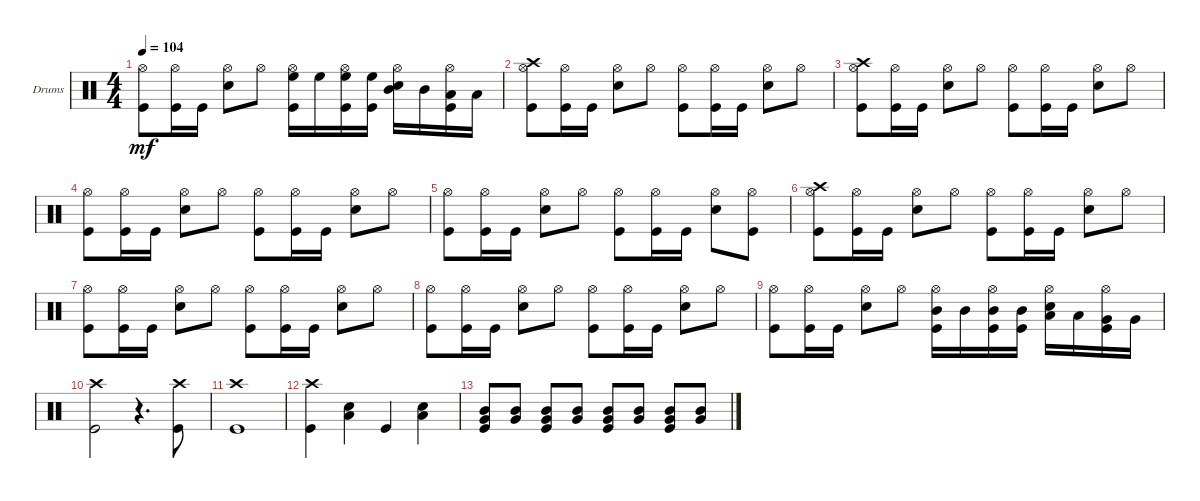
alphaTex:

\defaultSystemsLayout 4
\bracketExtendMode groupsimilarinstruments
\firstSystemTrackNameOrientation horizontal
\otherSystemsTrackNameOrientation horizontal
\track ("Drum" "Drums") {instrument percussion}
\staff {score}
\articulation defaults
\ts (4 4)
\tempo 104
\clef neutral
\ks c
("Hi-Hat (open)" "Kick (hit)").8{dy mf} ("Kick (hit)" "Hi-Hat (open)").16 "Kick (hit)".16 ("Hi-Hat (open)" "Snare (hit) 2").8 "Hi-Hat (open)".8 ("High Floor Tom (hit)" "Kick (hit)" "Hi-Hat (open)").16 "High Floor Tom (hit)".16 ("Kick (hit)" "High Floor Tom (hit)" "Hi-Hat (open)").16 ("Kick (hit)" "High Floor Tom (hit)").16 ("Mid Tom (hit)" "Snare (hit) 2" "Hi-Hat (open)").16 "Mid Tom (hit)".16 ("Kick (hit)" "Low Tom (hit)" "Hi-Hat (open)").16 "Low Tom (hit)".16 |
("Kick (hit)" "Hi-Hat (open)" "Crash high (hit)").8 ("Hi-Hat (open)" "Kick (hit)").16 "Kick (hit)".16 ("Hi-Hat (open)" "Snare (hit) 2").8 "Hi-Hat (open)".8 ("Kick (hit)" "Hi-Hat (open)").8 ("Hi-Hat (open)" "Kick (hit)").16 "Kick (hit)".16 ("Hi-Hat (open)" "Snare (hit) 2").8 "Hi-Hat (open)".8 |
("Kick (hit)" "Hi-Hat (open)" "Crash high (hit)").8 ("Kick (hit)" "Hi-Hat (open)").16 "Kick (hit)".16 ("Snare (hit) 2" "Hi-Hat (open)").8 "Hi-Hat (open)".8 ("Kick (hit)" "Hi-Hat (open)").8 ("Hi-Hat (open)" "Kick (hit)").16 "Kick (hit)".16 ("Hi-Hat (open)" "Snare (hit) 2").8 "Hi-Hat (open)".8 |
("Hi-Hat (open)" "Kick (hit)").8 ("Kick (hit)" "Hi-Hat (open)").16 "Kick (hit)".16 ("Snare (hit) 2" "Hi-Hat (open)").8 "Hi-Hat (open)".8 ("Kick (hit)" "Hi-Hat (open)").8 ("Hi-Hat (open)" "Kick (hit)").16 "Kick (hit)".16 ("Snare (hit) 2" "Hi-Hat (open)").8 "Hi-Hat (open)".8 |
("Kick (hit)" "Hi-Hat (open)").8 ("Hi-Hat (open)" "Kick (hit)").16 "Kick (hit)".16 ("Snare (hit) 2" "Hi-Hat (open)").8 "Hi-Hat (open)".8 ("Hi-Hat (open)" "Kick (hit)").8 ("Hi-Hat (open)" "Kick (hit)").16 "Kick (hit)".16 ("Snare (hit) 2" "Hi-Hat (open)").8 ("Hi-Hat (open)" "Kick (hit)").8 |
("Kick (hit)" "Crash high (hit)" "Hi-Hat (open)").8 ("Kick (hit)" "Hi-Hat (open)").16 "Kick (hit)".16 ("Snare (hit) 2" "Hi-Hat (open)").8 "Hi-Hat (open)".8 ("Kick (hit)" "Hi-Hat (open)").8 ("Kick (hit)" "Hi-Hat (open)").16 "Kick (hit)".16 ("Hi-Hat (open)" "Snare (hit) 2").8 "Hi-Hat (open)".8 |
("Hi-Hat (open)" "Kick (hit)").8 ("Hi-Hat (open)" "Kick (hit)").16 "Kick (hit)".16 ("Snare (hit) 2" "Hi-Hat (open)").8 "Hi-Hat (open)".8 ("Kick (hit)" "Hi-Hat (open)").8 ("Hi-Hat (open)" "Kick (hit)").16 "Kick (hit)".16 ("Hi-Hat (open)" "Snare (hit) 2").8 "Hi-Hat (open)".8 |
("Hi-Hat (open)" "Kick (hit)").8 ("Kick (hit)" "Hi-Hat (open)").16 "Kick (hit)".16 ("Snare (hit) 2" "Hi-Hat (open)").8 "Hi-Hat (open)".8 ("Kick (hit)" "Hi-Hat (open)").8 ("Kick (hit)" "Hi-Hat (open)").16 "Kick (hit)".16 ("Snare (hit) 2" "Hi-Hat (open)").8 "Hi-Hat (open)".8 |
("Kick (hit)" "Hi-Hat (open)").8 ("Hi-Hat (open)" "Kick (hit)").16 "Kick (hit)".16 ("Hi-Hat (open)" "Snare (hit) 2").8 "Hi-Hat (open)".8 ("Kick (hit)" "Hi-Hat (open)" "Mid Tom (hit)").16 "Mid Tom (hit)".16 ("Kick (hit)" "Mid Tom (hit)" "Hi-Hat (open)").16 ("Kick (hit)" "Mid Tom (hit)").16 ("Snare (hit) 2" "Hi-Hat (open)" "Low Tom (hit)").16 "Low Tom (hit)".16 ("Kick (hit)" "Hi-Hat (open)" "Very Low Tom (hit)").16 "Very Low Tom (hit)".16 |
("Crash high (hit)" "Kick (hit)").2 r.4{d} ("Crash high (hit)" "Kick (hit)").8 |
("Crash high (hit)" "Kick (hit)").1 |
("Kick (hit)" "Crash high (hit)").4 ("Snare (hit) 2" "Low Tom (hit)").4 "Kick (hit)".4 ("Snare (hit) 2" "Low Tom (hit)").4 |
("Very Low Tom (hit)" "Mid Tom (hit)" "Kick (hit)").8 ("Mid Tom (hit)" "Very Low Tom (hit)").8 ("Kick (hit)" "Mid Tom (hit)" "Very Low Tom (hit)").8 ("Mid Tom (hit)" "Very Low Tom (hit)").8 ("Kick (hit)" "Very Low Tom (hit)" "Mid Tom (hit)").8 ("Mid Tom (hit)" "Very Low Tom (hit)").8 ("Kick (hit)" "Mid Tom (hit)" "Very Low Tom (hit)").8 ("Mid Tom (hit)" "Very Low Tom (hit)").8
